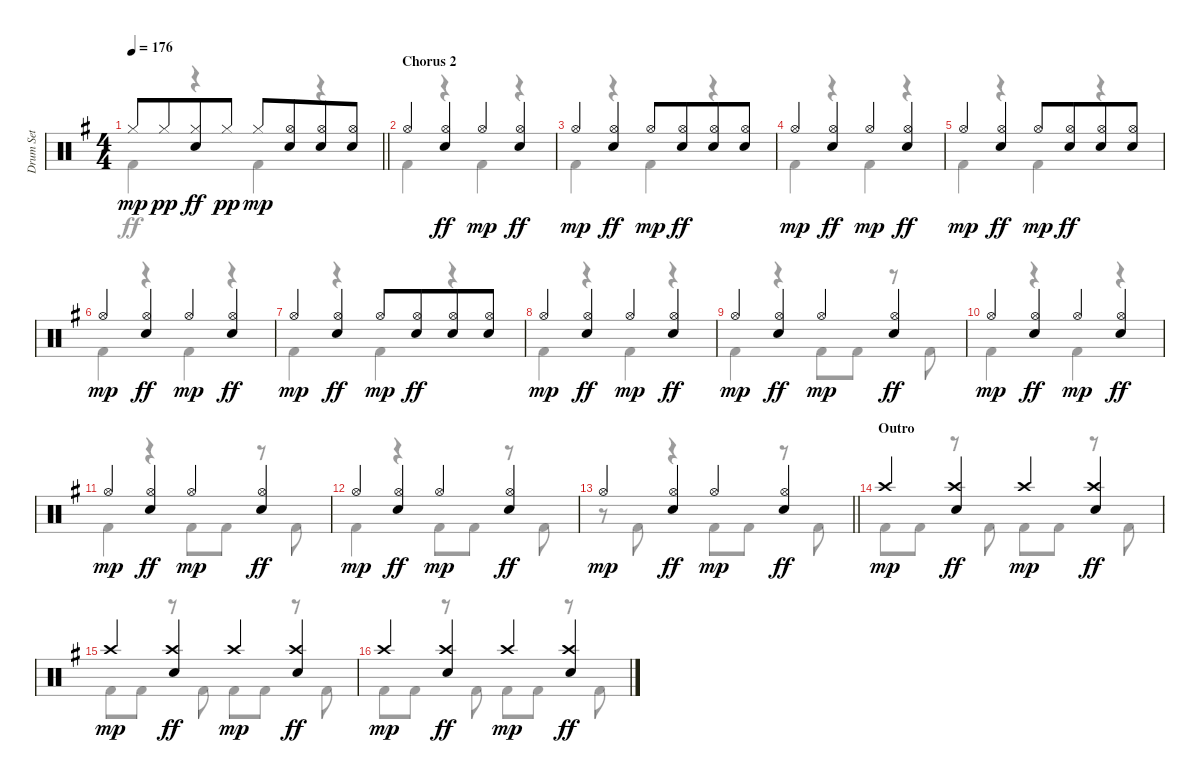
\track ("Drum Set" "Drum Set") {instrument percussion}
\staff {score}
\articulation defaults
\voice
\ts (4 4)
\tempo 176
\clef neutral
\barLineRight lightlight
\ks eminor "Hi-Hat (closed)".8{dy mp} "Hi-Hat (closed)".8{dy pp beam merge}
("Hi-Hat (closed)" "Electric Snare (hit)").8{dy ff} "Hi-Hat (closed)".8{dy pp} "Hi-Hat (closed)".8{dy mp} ("Electric Snare (hit)" "Hi-Hat (open)").8{beam merge} ("Electric Snare (hit)" "Hi-Hat (open)").8 ("Electric Snare (hit)" "Hi-Hat (open)").8 |
\section ("" "Chorus 2")
"Hi-Hat (open)".4 ("Hi-Hat (open)" "Electric Snare (hit)").4{dy ff} "Hi-Hat (open)".4{dy mp} ("Hi-Hat (open)" "Electric Snare (hit)").4{dy ff} |
"Hi-Hat (open)".4{dy mp} ("Hi-Hat (open)" "Electric Snare (hit)").4{dy ff} "Hi-Hat (open)".8{dy mp} ("Hi-Hat (open)" "Electric Snare (hit)").8{dy ff beam merge} ("Hi-Hat (open)" "Electric Snare (hit)").8 ("Hi-Hat (open)" "Electric Snare (hit)").8 |
"Hi-Hat (open)".4{dy mp} ("Hi-Hat (open)" "Electric Snare (hit)").4{dy ff} "Hi-Hat (open)".4{dy mp} ("Hi-Hat (open)" "Electric Snare (hit)").4{dy ff} |
"Hi-Hat (open)".4{dy mp} ("Hi-Hat (open)" "Electric Snare (hit)").4{dy ff} "Hi-Hat (open)".8{dy mp} ("Hi-Hat (open)" "Electric Snare (hit)").8{dy ff beam merge} ("Hi-Hat (open)" "Electric Snare (hit)").8 ("Hi-Hat (open)" "Electric Snare (hit)").8 |
"Hi-Hat (open)".4{dy mp} ("Hi-Hat (open)" "Electric Snare (hit)").4{dy ff} "Hi-Hat (open)".4{dy mp} ("Hi-Hat (open)" "Electric Snare (hit)").4{dy ff} |
"Hi-Hat (open)".4{dy mp} ("Hi-Hat (open)" "Electric Snare (hit)").4{dy ff} "Hi-Hat (open)".8{dy mp} ("Hi-Hat (open)" "Electric Snare (hit)").8{dy ff beam merge} ("Hi-Hat (open)" "Electric Snare (hit)").8 ("Hi-Hat (open)" "Electric Snare (hit)").8 |
"Hi-Hat (open)".4{dy mp} ("Hi-Hat (open)" "Electric Snare (hit)").4{dy ff} "Hi-Hat (open)".4{dy mp} ("Hi-Hat (open)" "Electric Snare (hit)").4{dy ff} |
"Hi-Hat (open)".4{dy mp} ("Hi-Hat (open)" "Electric Snare (hit)").4{dy ff} "Hi-Hat (open)".4{dy mp} ("Hi-Hat (open)" "Electric Snare (hit)").4{dy ff} |
"Hi-Hat (open)".4{dy mp} ("Hi-Hat (open)" "Electric Snare (hit)").4{dy ff} "Hi-Hat (open)".4{dy mp} ("Hi-Hat (open)" "Electric Snare (hit)").4{dy ff} |
"Hi-Hat (open)".4{dy mp} ("Hi-Hat (open)" "Electric Snare (hit)").4{dy ff} "Hi-Hat (open)".4{dy mp} ("Hi-Hat (open)" "Electric Snare (hit)").4{dy ff} |
"Hi-Hat (open)".4{dy mp} ("Hi-Hat (open)" "Electric Snare (hit)").4{dy ff} "Hi-Hat (open)".4{dy mp} ("Hi-Hat (open)" "Electric Snare (hit)").4{dy ff} |
\barLineRight lightlight "Hi-Hat (open)".4{dy mp}
("Hi-Hat (open)" "Electric Snare (hit)").4{dy ff} "Hi-Hat (open)".4{dy mp} ("Hi-Hat (open)" "Electric Snare (hit)").4{dy ff} |
\section ("" "Outro")
"Crash high (hit)".4{dy mp} ("Crash high (hit)" "Electric Snare (hit)").4{dy ff} "Crash high (hit)".4{dy mp} ("Crash high (hit)" "Electric Snare (hit)").4{dy ff} |
"Crash high (hit)".4{dy mp} ("Crash high (hit)" "Electric Snare (hit)").4{dy ff} "Crash high (hit)".4{dy mp} ("Crash high (hit)" "Electric Snare (hit)").4{dy ff} |
"Crash high (hit)".4{dy mp} ("Crash high (hit)" "Electric Snare (hit)").4{dy ff} "Crash high (hit)".4{dy mp} ("Crash high (hit)" "Electric Snare (hit)").4{dy ff}
\voice
\clef neutral
\ottava regular
\simile none
\barLineRight lightlight
\ks eminor "Kick (hit) 2".4{dy ff}
r.4 "Kick (hit) 2".4 r.4 |
"Kick (hit) 2".4 r.4 "Kick (hit) 2".4 r.4 |
"Kick (hit) 2".4 r.4 "Kick (hit) 2".4 r.4 |
"Kick (hit) 2".4 r.4 "Kick (hit) 2".4 r.4 |
"Kick (hit) 2".4 r.4 "Kick (hit) 2".4 r.4 |
"Kick (hit) 2".4 r.4 "Kick (hit) 2".4 r.4 |
"Kick (hit) 2".4 r.4 "Kick (hit) 2".4 r.4 |
"Kick (hit) 2".4 r.4 "Kick (hit) 2".4 r.4 |
"Kick (hit) 2".4 r.4 "Kick (hit) 2".8 "Kick (hit) 2".8 r.8 "Kick (hit) 2".8 |
"Kick (hit) 2".4 r.4 "Kick (hit) 2".4 r.4 |
"Kick (hit) 2".4 r.4 "Kick (hit) 2".8 "Kick (hit) 2".8 r.8 "Kick (hit) 2".8 |
"Kick (hit) 2".4 r.4 "Kick (hit) 2".8 "Kick (hit) 2".8 r.8 "Kick (hit) 2".8 |
\barLineRight lightlight
r.8 "Kick (hit) 2".8 r.4 "Kick (hit) 2".8 "Kick (hit) 2".8 r.8 "Kick (hit) 2".8 |
"Kick (hit) 2".8 "Kick (hit) 2".8 r.8 "Kick (hit) 2".8 "Kick (hit) 2".8 "Kick (hit) 2".8 r.8 "Kick (hit) 2".8 |
"Kick (hit) 2".8 "Kick (hit) 2".8 r.8 "Kick (hit) 2".8 "Kick (hit) 2".8 "Kick (hit) 2".8 r.8 "Kick (hit) 2".8 |
"Kick (hit) 2".8 "Kick (hit) 2".8 r.8 "Kick (hit) 2".8 "Kick (hit) 2".8 "Kick (hit) 2".8 r.8 "Kick (hit) 2".8
